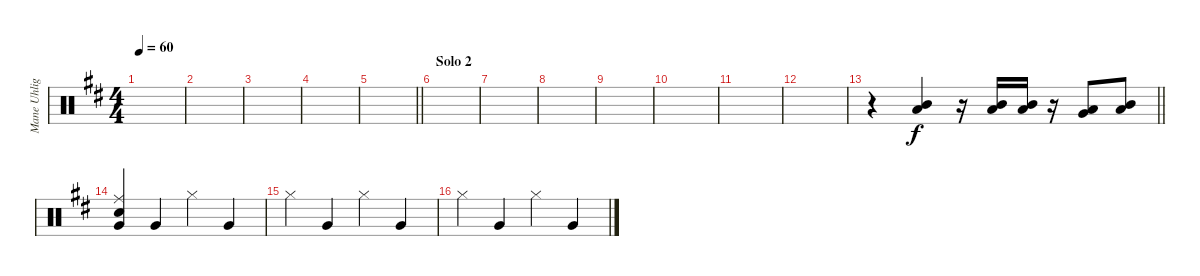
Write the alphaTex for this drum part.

\track ("Mane Uhlig" "Mane Uhlig") {instrument percussion}
\staff {score}
\articulation defaults
\ts (4 4)
\tempo 60
\clef neutral
\ks d
|
|
|
|
\barLineRight lightlight
|
\section ("" "Solo 2")
|
|
|
|
|
|
|
\barLineRight lightlight
r.4 ("Mid Tom (hit)" "Low Tom (hit)").4 r.16 ("Low Tom (hit)" "Mid Tom (hit)").16 ("Low Tom (hit)" "Mid Tom (hit)").16 r.16 ("Low Floor Tom (hit)" "Very Low Tom (hit)").8 ("Low Tom (hit)" "Mid Tom (hit)").8 |
("Ride (middle)" "Very Low Tom (hit)" "Snare (hit) 2").4 "Very Low Tom (hit)".4 "Hi-Hat (closed)".4 "Very Low Tom (hit)".4 |
"Hi-Hat (closed)".4 "Very Low Tom (hit)".4 "Hi-Hat (closed)".4 "Very Low Tom (hit)".4 |
"Hi-Hat (closed)".4 "Very Low Tom (hit)".4 "Hi-Hat (closed)".4 "Very Low Tom (hit)".4
